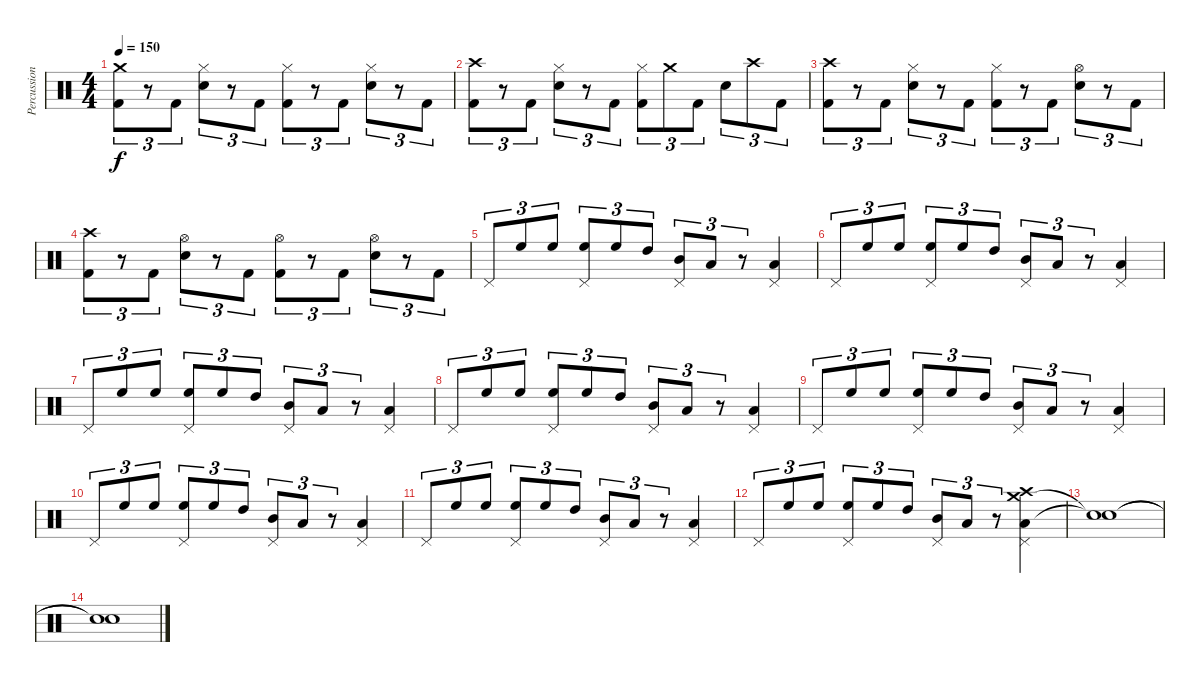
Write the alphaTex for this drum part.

\track ("Percussions" "Percussion") {instrument percussion}
\staff {score}
\articulation defaults
\ts (4 4)
\tempo 150
\clef neutral
\ks c
("Crash medium (hit)" "Kick (hit) 2").8{tu (3 2) dy f} r.8{tu (3 2)} "Kick (hit) 2".8{tu (3 2)} ("Hi-Hat (closed)" "Snare (hit) 2").8{tu (3 2)} r.8{tu (3 2)} "Kick (hit) 2".8{tu (3 2)} ("Hi-Hat (closed)" "Kick (hit) 2").8{tu (3 2)} r.8{tu (3 2)} "Kick (hit) 2".8{tu (3 2)} ("Hi-Hat (closed)" "Snare (hit) 2").8{tu (3 2)} r.8{tu (3 2)} "Kick (hit) 2".8{tu (3 2)} |
("Crash high (hit)" "Kick (hit) 2").8{tu (3 2)} r.8{tu (3 2)} "Kick (hit) 2".8{tu (3 2)} ("Hi-Hat (closed)" "Snare (hit) 2").8{tu (3 2)} r.8{tu (3 2)} "Kick (hit) 2".8{tu (3 2)} ("Hi-Hat (closed)" "Kick (hit) 2").8{tu (3 2)} "Crash medium (hit)".8{tu (3 2)} "Kick (hit) 2".8{tu (3 2)} "Snare (hit) 2".8{tu (3 2)} "Crash high (hit)".8{tu (3 2)} "Kick (hit) 2".8{tu (3 2)} |
("Crash high (hit)" "Kick (hit) 2").8{tu (3 2)} r.8{tu (3 2)} "Kick (hit) 2".8{tu (3 2)} ("Hi-Hat (closed)" "Snare (hit) 2").8{tu (3 2)} r.8{tu (3 2)} "Kick (hit) 2".8{tu (3 2)} ("Hi-Hat (closed)" "Kick (hit) 2").8{tu (3 2)} r.8{tu (3 2)} "Kick (hit) 2".8{tu (3 2)} ("Hi-Hat (open)" "Snare (hit) 2").8{tu (3 2)} r.8{tu (3 2)} "Kick (hit) 2".8{tu (3 2)} |
("Crash high (hit)" "Kick (hit) 2").8{tu (3 2)} r.8{tu (3 2)} "Kick (hit) 2".8{tu (3 2)} ("Hi-Hat (open)" "Snare (hit) 2").8{tu (3 2)} r.8{tu (3 2)} "Kick (hit) 2".8{tu (3 2)} ("Hi-Hat (open)" "Kick (hit) 2").8{tu (3 2)} r.8{tu (3 2)} "Kick (hit) 2".8{tu (3 2)} ("Hi-Hat (open)" "Snare (hit) 2").8{tu (3 2)} r.8{tu (3 2)} "Kick (hit) 2".8{tu (3 2)} |
"Pedal Hi-Hat (hit)".8{tu (3 2)} "High Floor Tom (hit)".8{tu (3 2)} "High Floor Tom (hit)".8{tu (3 2)} ("High Floor Tom (hit)" "Pedal Hi-Hat (hit)").8{tu (3 2)} "High Floor Tom (hit)".8{tu (3 2)} "High Tom (hit)".8{tu (3 2)} ("Mid Tom (hit)" "Pedal Hi-Hat (hit)").8{tu (3 2)} "Low Tom (hit)".8{tu (3 2)} r.8{tu (3 2)} ("Low Tom (hit)" "Pedal Hi-Hat (hit)").4 |
"Pedal Hi-Hat (hit)".8{tu (3 2)} "High Floor Tom (hit)".8{tu (3 2)} "High Floor Tom (hit)".8{tu (3 2)} ("High Floor Tom (hit)" "Pedal Hi-Hat (hit)").8{tu (3 2)} "High Floor Tom (hit)".8{tu (3 2)} "High Tom (hit)".8{tu (3 2)} ("Mid Tom (hit)" "Pedal Hi-Hat (hit)").8{tu (3 2)} "Low Tom (hit)".8{tu (3 2)} r.8{tu (3 2)} ("Low Tom (hit)" "Pedal Hi-Hat (hit)").4 |
"Pedal Hi-Hat (hit)".8{tu (3 2)} "High Floor Tom (hit)".8{tu (3 2)} "High Floor Tom (hit)".8{tu (3 2)} ("High Floor Tom (hit)" "Pedal Hi-Hat (hit)").8{tu (3 2)} "High Floor Tom (hit)".8{tu (3 2)} "High Tom (hit)".8{tu (3 2)} ("Mid Tom (hit)" "Pedal Hi-Hat (hit)").8{tu (3 2)} "Low Tom (hit)".8{tu (3 2)} r.8{tu (3 2)} ("Low Tom (hit)" "Pedal Hi-Hat (hit)").4 |
"Pedal Hi-Hat (hit)".8{tu (3 2)} "High Floor Tom (hit)".8{tu (3 2)} "High Floor Tom (hit)".8{tu (3 2)} ("High Floor Tom (hit)" "Pedal Hi-Hat (hit)").8{tu (3 2)} "High Floor Tom (hit)".8{tu (3 2)} "High Tom (hit)".8{tu (3 2)} ("Mid Tom (hit)" "Pedal Hi-Hat (hit)").8{tu (3 2)} "Low Tom (hit)".8{tu (3 2)} r.8{tu (3 2)} ("Low Tom (hit)" "Pedal Hi-Hat (hit)").4 |
"Pedal Hi-Hat (hit)".8{tu (3 2)} "High Floor Tom (hit)".8{tu (3 2)} "High Floor Tom (hit)".8{tu (3 2)} ("High Floor Tom (hit)" "Pedal Hi-Hat (hit)").8{tu (3 2)} "High Floor Tom (hit)".8{tu (3 2)} "High Tom (hit)".8{tu (3 2)} ("Mid Tom (hit)" "Pedal Hi-Hat (hit)").8{tu (3 2)} "Low Tom (hit)".8{tu (3 2)} r.8{tu (3 2)} ("Low Tom (hit)" "Pedal Hi-Hat (hit)").4 |
"Pedal Hi-Hat (hit)".8{tu (3 2)} "High Floor Tom (hit)".8{tu (3 2)} "High Floor Tom (hit)".8{tu (3 2)} ("High Floor Tom (hit)" "Pedal Hi-Hat (hit)").8{tu (3 2)} "High Floor Tom (hit)".8{tu (3 2)} "High Tom (hit)".8{tu (3 2)} ("Mid Tom (hit)" "Pedal Hi-Hat (hit)").8{tu (3 2)} "Low Tom (hit)".8{tu (3 2)} r.8{tu (3 2)} ("Low Tom (hit)" "Pedal Hi-Hat (hit)").4 |
"Pedal Hi-Hat (hit)".8{tu (3 2)} "High Floor Tom (hit)".8{tu (3 2)} "High Floor Tom (hit)".8{tu (3 2)} ("High Floor Tom (hit)" "Pedal Hi-Hat (hit)").8{tu (3 2)} "High Floor Tom (hit)".8{tu (3 2)} "High Tom (hit)".8{tu (3 2)} ("Mid Tom (hit)" "Pedal Hi-Hat (hit)").8{tu (3 2)} "Low Tom (hit)".8{tu (3 2)} r.8{tu (3 2)} ("Low Tom (hit)" "Pedal Hi-Hat (hit)").4 |
"Pedal Hi-Hat (hit)".8{tu (3 2)} "High Floor Tom (hit)".8{tu (3 2)} "High Floor Tom (hit)".8{tu (3 2)} ("High Floor Tom (hit)" "Pedal Hi-Hat (hit)").8{tu (3 2)} "High Floor Tom (hit)".8{tu (3 2)} "High Tom (hit)".8{tu (3 2)} ("Mid Tom (hit)" "Pedal Hi-Hat (hit)").8{tu (3 2)} "Low Tom (hit)".8{tu (3 2)} r.8{tu (3 2)} ("Crash medium (hit)" "Low Tom (hit)" "Crash high (hit)" "Pedal Hi-Hat (hit)").4 |
("Snare (hit)"{t} "Snare (hit)"{t}).1 |
("Snare (hit)"{t} "Snare (hit)"{t}).1
